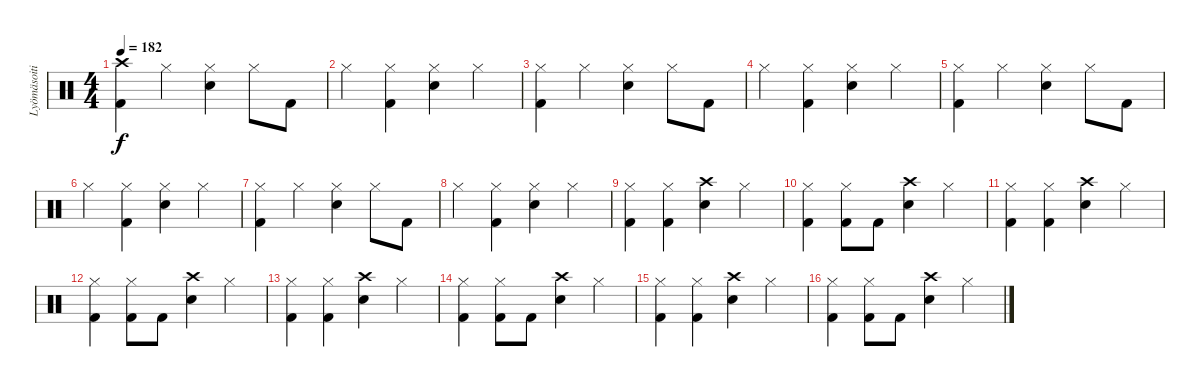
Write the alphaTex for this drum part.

\track ("Lyömäsoitin" "Lyömäsoiti") {instrument percussion}
\staff {score}
\articulation defaults
\ts (4 4)
\tempo 182
\clef neutral
\ks c
("Crash high (hit)" "Kick (hit) 2").4{dy f} "Hi-Hat (closed)".4 ("Hi-Hat (closed)" "Electric Snare (hit)").4 "Hi-Hat (closed)".8 "Kick (hit) 2".8 |
"Hi-Hat (closed)".4 ("Hi-Hat (closed)" "Kick (hit) 2").4 ("Hi-Hat (closed)" "Electric Snare (hit)").4 "Hi-Hat (closed)".4 |
("Hi-Hat (closed)" "Kick (hit) 2").4 "Hi-Hat (closed)".4 ("Hi-Hat (closed)" "Electric Snare (hit)").4 "Hi-Hat (closed)".8 "Kick (hit) 2".8 |
"Hi-Hat (closed)".4 ("Hi-Hat (closed)" "Kick (hit) 2").4 ("Hi-Hat (closed)" "Electric Snare (hit)").4 "Hi-Hat (closed)".4 |
("Hi-Hat (closed)" "Kick (hit) 2").4 "Hi-Hat (closed)".4 ("Hi-Hat (closed)" "Electric Snare (hit)").4 "Hi-Hat (closed)".8 "Kick (hit) 2".8 |
"Hi-Hat (closed)".4 ("Hi-Hat (closed)" "Kick (hit) 2").4 ("Hi-Hat (closed)" "Electric Snare (hit)").4 "Hi-Hat (closed)".4 |
("Hi-Hat (closed)" "Kick (hit) 2").4 "Hi-Hat (closed)".4 ("Hi-Hat (closed)" "Electric Snare (hit)").4 "Hi-Hat (closed)".8 "Kick (hit) 2".8 |
"Hi-Hat (closed)".4 ("Hi-Hat (closed)" "Kick (hit) 2").4 ("Hi-Hat (closed)" "Electric Snare (hit)").4 "Hi-Hat (closed)".4 |
("Hi-Hat (closed)" "Kick (hit) 2").4 ("Hi-Hat (closed)" "Kick (hit) 2").4 ("Crash high (hit)" "Electric Snare (hit)").4 "Hi-Hat (closed)".4 |
("Hi-Hat (closed)" "Kick (hit) 2").4 ("Hi-Hat (closed)" "Kick (hit) 2").8 "Kick (hit) 2".8 ("Crash high (hit)" "Electric Snare (hit)").4 "Hi-Hat (closed)".4 |
("Hi-Hat (closed)" "Kick (hit) 2").4 ("Hi-Hat (closed)" "Kick (hit) 2").4 ("Crash high (hit)" "Electric Snare (hit)").4 "Hi-Hat (closed)".4 |
("Hi-Hat (closed)" "Kick (hit) 2").4 ("Hi-Hat (closed)" "Kick (hit) 2").8 "Kick (hit) 2".8 ("Crash high (hit)" "Electric Snare (hit)").4 "Hi-Hat (closed)".4 |
("Hi-Hat (closed)" "Kick (hit) 2").4 ("Hi-Hat (closed)" "Kick (hit) 2").4 ("Crash high (hit)" "Electric Snare (hit)").4 "Hi-Hat (closed)".4 |
("Hi-Hat (closed)" "Kick (hit) 2").4 ("Hi-Hat (closed)" "Kick (hit) 2").8 "Kick (hit) 2".8 ("Crash high (hit)" "Electric Snare (hit)").4 "Hi-Hat (closed)".4 |
("Hi-Hat (closed)" "Kick (hit) 2").4 ("Hi-Hat (closed)" "Kick (hit) 2").4 ("Crash high (hit)" "Electric Snare (hit)").4 "Hi-Hat (closed)".4 |
("Hi-Hat (closed)" "Kick (hit) 2").4 ("Hi-Hat (closed)" "Kick (hit) 2").8 "Kick (hit) 2".8 ("Crash high (hit)" "Electric Snare (hit)").4 "Hi-Hat (closed)".4
